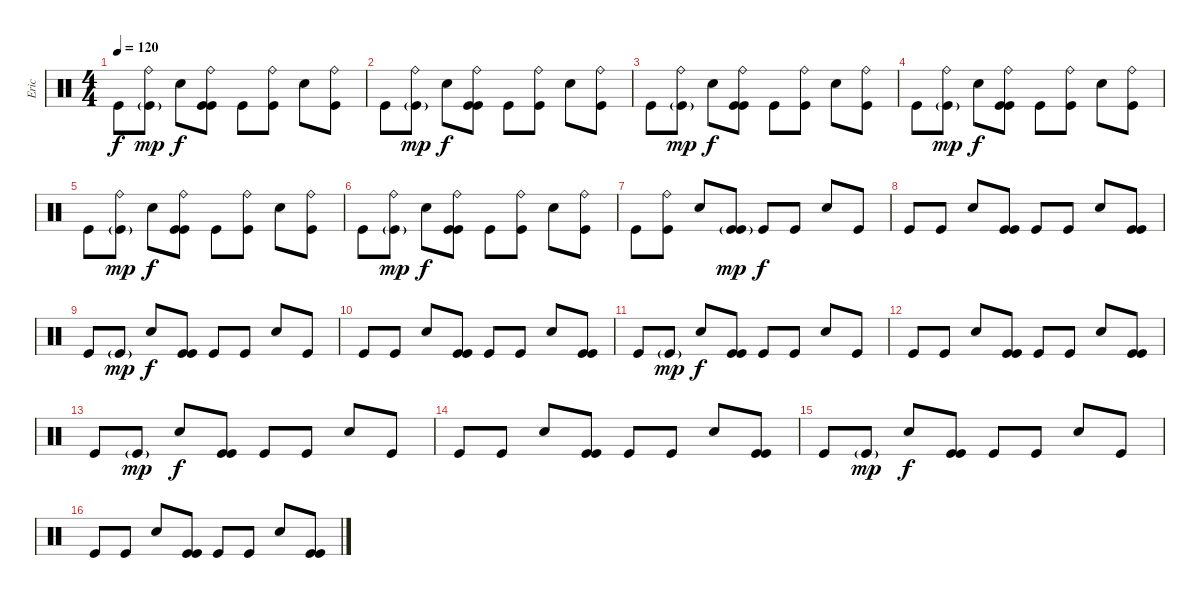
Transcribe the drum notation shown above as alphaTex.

\track ("Eric" "Eric") {instrument percussion}
\staff {score}
\articulation defaults
\ts (4 4)
\tempo 120
\clef neutral
\ks c "Kick (hit)".8{dy f}
("Kick (hit)"{g} "Ride (bell)").8{dy mp} "Electric Snare (hit)".8{dy f} ("Kick (hit)" "Kick (hit)" "Ride (bell)").8 "Kick (hit)".8 ("Kick (hit)" "Ride (bell)").8 "Electric Snare (hit)".8 ("Kick (hit)" "Ride (bell)").8 |
"Kick (hit)".8 ("Kick (hit)"{g} "Ride (bell)").8{dy mp} "Electric Snare (hit)".8{dy f} ("Kick (hit)" "Kick (hit)" "Ride (bell)").8 "Kick (hit)".8 ("Kick (hit)" "Ride (bell)").8 "Electric Snare (hit)".8 ("Kick (hit)" "Ride (bell)").8 |
"Kick (hit)".8 ("Kick (hit)"{g} "Ride (bell)").8{dy mp} "Electric Snare (hit)".8{dy f} ("Kick (hit)" "Kick (hit)" "Ride (bell)").8 "Kick (hit)".8 ("Kick (hit)" "Ride (bell)").8 "Electric Snare (hit)".8 ("Kick (hit)" "Ride (bell)").8 |
"Kick (hit)".8 ("Kick (hit)"{g} "Ride (bell)").8{dy mp} "Electric Snare (hit)".8{dy f} ("Kick (hit)" "Kick (hit)" "Ride (bell)").8 "Kick (hit)".8 ("Kick (hit)" "Ride (bell)").8 "Electric Snare (hit)".8 ("Kick (hit)" "Ride (bell)").8 |
"Kick (hit)".8 ("Kick (hit)"{g} "Ride (bell)").8{dy mp} "Electric Snare (hit)".8{dy f} ("Kick (hit)" "Kick (hit)" "Ride (bell)").8 "Kick (hit)".8 ("Kick (hit)" "Ride (bell)").8 "Electric Snare (hit)".8 ("Kick (hit)" "Ride (bell)").8 |
"Kick (hit)".8 ("Kick (hit)"{g} "Ride (bell)").8{dy mp} "Electric Snare (hit)".8{dy f} ("Kick (hit)" "Kick (hit)" "Ride (bell)").8 "Kick (hit)".8 ("Kick (hit)" "Ride (bell)").8 "Electric Snare (hit)".8 ("Kick (hit)" "Ride (bell)").8 |
"Kick (hit)".8 ("Kick (hit)" "Ride (bell)").8 "Electric Snare (hit)".8 ("Kick (hit)"{g} "Kick (hit)"{g}).8{dy mp} "Kick (hit)".8{dy f} "Kick (hit)".8 "Electric Snare (hit)".8 "Kick (hit)".8 |
"Kick (hit)".8 "Kick (hit)".8 "Electric Snare (hit)".8 ("Kick (hit)" "Kick (hit)").8 "Kick (hit)".8 "Kick (hit)".8 "Electric Snare (hit)".8 ("Kick (hit)" "Kick (hit)").8 |
"Kick (hit)".8 "Kick (hit)"{g}.8{dy mp} "Electric Snare (hit)".8{dy f} ("Kick (hit)" "Kick (hit)").8 "Kick (hit)".8 "Kick (hit)".8 "Electric Snare (hit)".8 "Kick (hit)".8 |
"Kick (hit)".8 "Kick (hit)".8 "Electric Snare (hit)".8 ("Kick (hit)" "Kick (hit)").8 "Kick (hit)".8 "Kick (hit)".8 "Electric Snare (hit)".8 ("Kick (hit)" "Kick (hit)").8 |
"Kick (hit)".8 "Kick (hit)"{g}.8{dy mp} "Electric Snare (hit)".8{dy f} ("Kick (hit)" "Kick (hit)").8 "Kick (hit)".8 "Kick (hit)".8 "Electric Snare (hit)".8 "Kick (hit)".8 |
"Kick (hit)".8 "Kick (hit)".8 "Electric Snare (hit)".8 ("Kick (hit)" "Kick (hit)").8 "Kick (hit)".8 "Kick (hit)".8 "Electric Snare (hit)".8 ("Kick (hit)" "Kick (hit)").8 |
"Kick (hit)".8 "Kick (hit)"{g}.8{dy mp} "Electric Snare (hit)".8{dy f} ("Kick (hit)" "Kick (hit)").8 "Kick (hit)".8 "Kick (hit)".8 "Electric Snare (hit)".8 "Kick (hit)".8 |
"Kick (hit)".8 "Kick (hit)".8 "Electric Snare (hit)".8 ("Kick (hit)" "Kick (hit)").8 "Kick (hit)".8 "Kick (hit)".8 "Electric Snare (hit)".8 ("Kick (hit)" "Kick (hit)").8 |
"Kick (hit)".8 "Kick (hit)"{g}.8{dy mp} "Electric Snare (hit)".8{dy f} ("Kick (hit)" "Kick (hit)").8 "Kick (hit)".8 "Kick (hit)".8 "Electric Snare (hit)".8 "Kick (hit)".8 |
"Kick (hit)".8 "Kick (hit)".8 "Electric Snare (hit)".8 ("Kick (hit)" "Kick (hit)").8 "Kick (hit)".8 "Kick (hit)".8 "Electric Snare (hit)".8 ("Kick (hit)" "Kick (hit)").8
